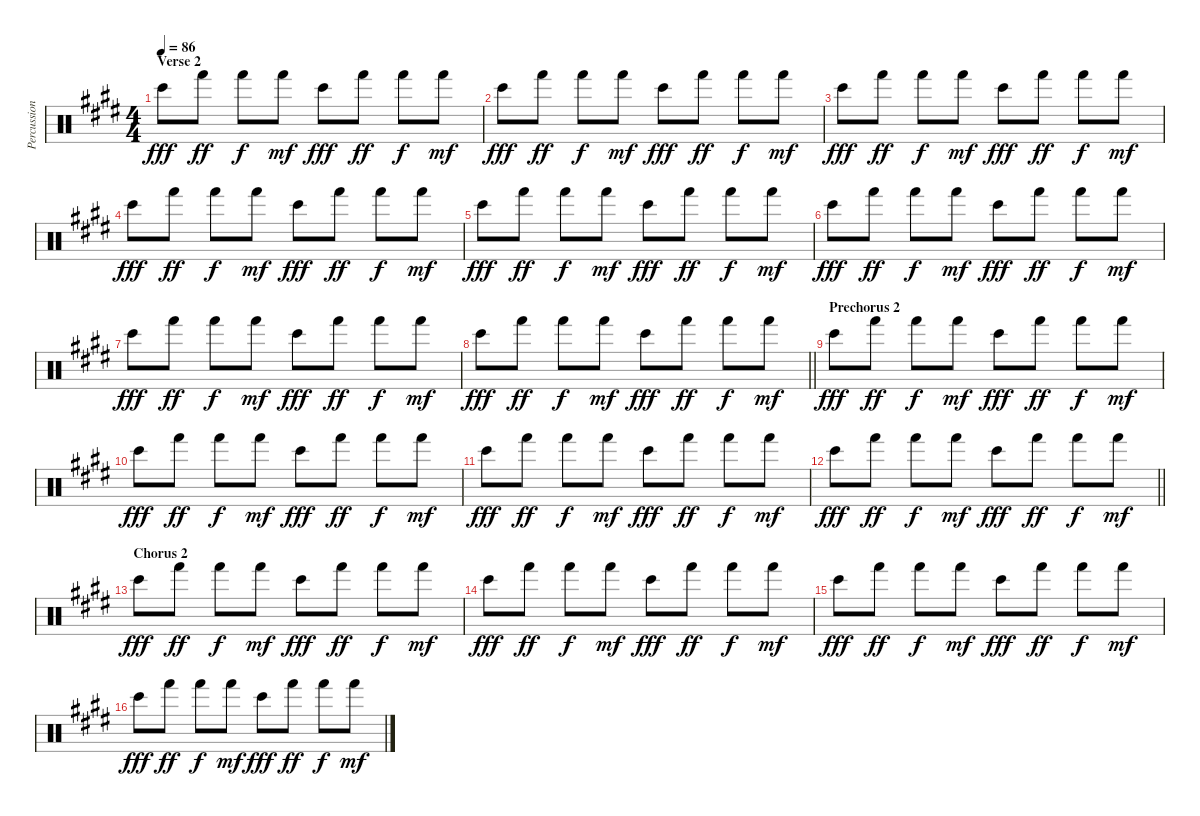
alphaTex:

\track ("Percussion" "Percussion") {instrument percussion}
\staff {score}
\articulation defaults
\ts (4 4)
\section ("" "Verse 2")
\tempo 86
\clef neutral
\ks e "Bongo High (hit)".8{dy fff} "Hand (hit)".8{dy ff} "Hand (hit)".8{dy f} "Hand (hit)".8{dy mf} "Bongo High (hit)".8{dy fff} "Hand (hit)".8{dy ff} "Hand (hit)".8{dy f} "Hand (hit)".8{dy mf}
|
"Bongo High (hit)".8{dy fff} "Hand (hit)".8{dy ff} "Hand (hit)".8{dy f} "Hand (hit)".8{dy mf} "Bongo High (hit)".8{dy fff} "Hand (hit)".8{dy ff} "Hand (hit)".8{dy f} "Hand (hit)".8{dy mf} |
"Bongo High (hit)".8{dy fff} "Hand (hit)".8{dy ff} "Hand (hit)".8{dy f} "Hand (hit)".8{dy mf} "Bongo High (hit)".8{dy fff} "Hand (hit)".8{dy ff} "Hand (hit)".8{dy f} "Hand (hit)".8{dy mf} |
"Bongo High (hit)".8{dy fff} "Hand (hit)".8{dy ff} "Hand (hit)".8{dy f} "Hand (hit)".8{dy mf} "Bongo High (hit)".8{dy fff} "Hand (hit)".8{dy ff} "Hand (hit)".8{dy f} "Hand (hit)".8{dy mf} |
"Bongo High (hit)".8{dy fff} "Hand (hit)".8{dy ff} "Hand (hit)".8{dy f} "Hand (hit)".8{dy mf} "Bongo High (hit)".8{dy fff} "Hand (hit)".8{dy ff} "Hand (hit)".8{dy f} "Hand (hit)".8{dy mf} |
"Bongo High (hit)".8{dy fff} "Hand (hit)".8{dy ff} "Hand (hit)".8{dy f} "Hand (hit)".8{dy mf} "Bongo High (hit)".8{dy fff} "Hand (hit)".8{dy ff} "Hand (hit)".8{dy f} "Hand (hit)".8{dy mf} |
"Bongo High (hit)".8{dy fff} "Hand (hit)".8{dy ff} "Hand (hit)".8{dy f} "Hand (hit)".8{dy mf} "Bongo High (hit)".8{dy fff} "Hand (hit)".8{dy ff} "Hand (hit)".8{dy f} "Hand (hit)".8{dy mf} |
\barLineRight lightlight "Bongo High (hit)".8{dy fff} "Hand (hit)".8{dy ff} "Hand (hit)".8{dy f} "Hand (hit)".8{dy mf} "Bongo High (hit)".8{dy fff} "Hand (hit)".8{dy ff} "Hand (hit)".8{dy f} "Hand (hit)".8{dy mf}
|
\section ("" "Prechorus 2")
"Bongo High (hit)".8{dy fff} "Hand (hit)".8{dy ff} "Hand (hit)".8{dy f} "Hand (hit)".8{dy mf} "Bongo High (hit)".8{dy fff} "Hand (hit)".8{dy ff} "Hand (hit)".8{dy f} "Hand (hit)".8{dy mf} |
"Bongo High (hit)".8{dy fff} "Hand (hit)".8{dy ff} "Hand (hit)".8{dy f} "Hand (hit)".8{dy mf} "Bongo High (hit)".8{dy fff} "Hand (hit)".8{dy ff} "Hand (hit)".8{dy f} "Hand (hit)".8{dy mf} |
"Bongo High (hit)".8{dy fff} "Hand (hit)".8{dy ff} "Hand (hit)".8{dy f} "Hand (hit)".8{dy mf} "Bongo High (hit)".8{dy fff} "Hand (hit)".8{dy ff} "Hand (hit)".8{dy f} "Hand (hit)".8{dy mf} |
\barLineRight lightlight "Bongo High (hit)".8{dy fff} "Hand (hit)".8{dy ff} "Hand (hit)".8{dy f} "Hand (hit)".8{dy mf} "Bongo High (hit)".8{dy fff} "Hand (hit)".8{dy ff} "Hand (hit)".8{dy f} "Hand (hit)".8{dy mf}
|
\section ("" "Chorus 2")
"Bongo High (hit)".8{dy fff} "Hand (hit)".8{dy ff} "Hand (hit)".8{dy f} "Hand (hit)".8{dy mf} "Bongo High (hit)".8{dy fff} "Hand (hit)".8{dy ff} "Hand (hit)".8{dy f} "Hand (hit)".8{dy mf} |
"Bongo High (hit)".8{dy fff} "Hand (hit)".8{dy ff} "Hand (hit)".8{dy f} "Hand (hit)".8{dy mf} "Bongo High (hit)".8{dy fff} "Hand (hit)".8{dy ff} "Hand (hit)".8{dy f} "Hand (hit)".8{dy mf} |
"Bongo High (hit)".8{dy fff} "Hand (hit)".8{dy ff} "Hand (hit)".8{dy f} "Hand (hit)".8{dy mf} "Bongo High (hit)".8{dy fff} "Hand (hit)".8{dy ff} "Hand (hit)".8{dy f} "Hand (hit)".8{dy mf} |
"Bongo High (hit)".8{dy fff} "Hand (hit)".8{dy ff} "Hand (hit)".8{dy f} "Hand (hit)".8{dy mf} "Bongo High (hit)".8{dy fff} "Hand (hit)".8{dy ff} "Hand (hit)".8{dy f} "Hand (hit)".8{dy mf}
